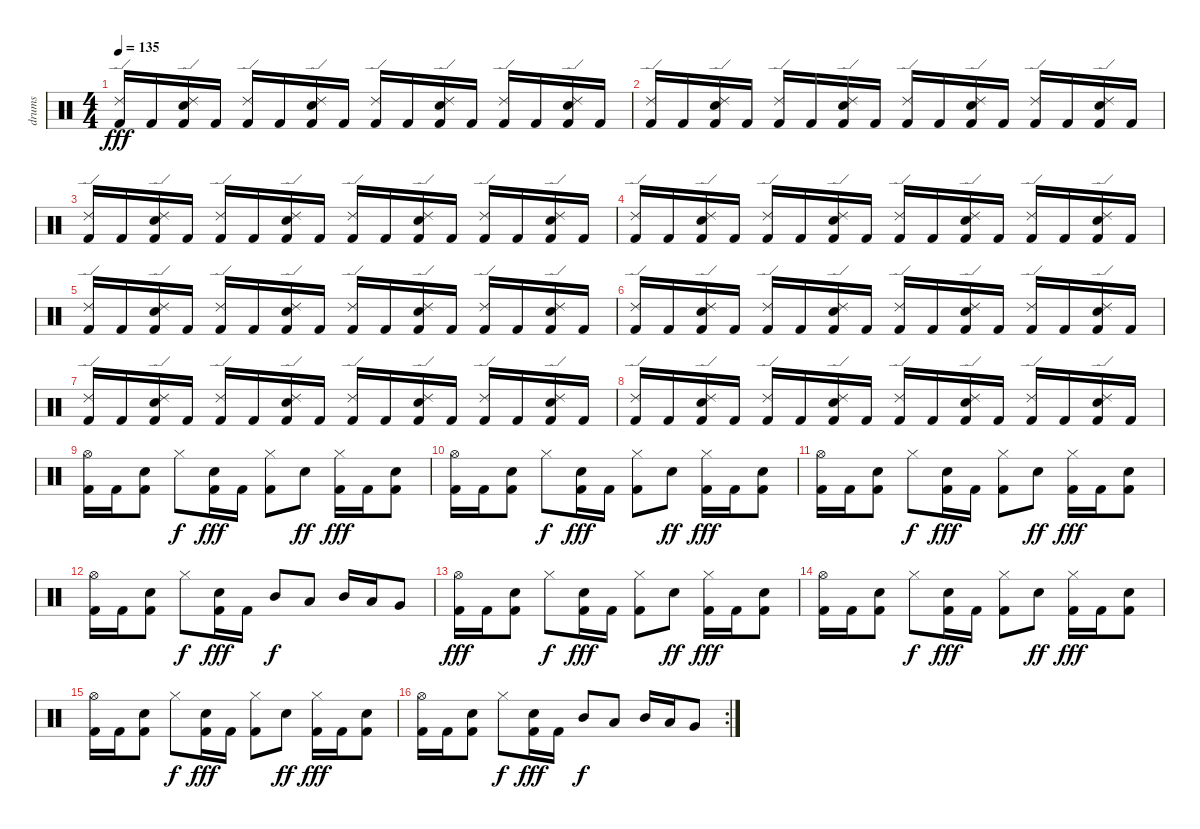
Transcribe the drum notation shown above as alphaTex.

\track ("drums" "drums") {instrument percussion}
\staff {score}
\articulation defaults
\ts (4 4)
\tempo 135
\clef neutral
\ks c
("Ride (edge) 2" "Kick (hit) 2").16{dy fff} "Kick (hit) 2".16 ("Ride (edge) 2" "Electric Snare (hit)" "Kick (hit) 2").16 "Kick (hit) 2".16 ("Ride (edge) 2" "Kick (hit) 2").16 "Kick (hit) 2".16 ("Ride (edge) 2" "Electric Snare (hit)" "Kick (hit) 2").16 "Kick (hit) 2".16 ("Ride (edge) 2" "Kick (hit) 2").16 "Kick (hit) 2".16 ("Ride (edge) 2" "Electric Snare (hit)" "Kick (hit) 2").16 "Kick (hit) 2".16 ("Ride (edge) 2" "Kick (hit) 2").16 "Kick (hit) 2".16 ("Ride (edge) 2" "Electric Snare (hit)" "Kick (hit) 2").16 "Kick (hit) 2".16 |
("Ride (edge) 2" "Kick (hit) 2").16 "Kick (hit) 2".16 ("Ride (edge) 2" "Electric Snare (hit)" "Kick (hit) 2").16 "Kick (hit) 2".16 ("Ride (edge) 2" "Kick (hit) 2").16 "Kick (hit) 2".16 ("Ride (edge) 2" "Electric Snare (hit)" "Kick (hit) 2").16 "Kick (hit) 2".16 ("Ride (edge) 2" "Kick (hit) 2").16 "Kick (hit) 2".16 ("Ride (edge) 2" "Electric Snare (hit)" "Kick (hit) 2").16 "Kick (hit) 2".16 ("Ride (edge) 2" "Kick (hit) 2").16 "Kick (hit) 2".16 ("Ride (edge) 2" "Electric Snare (hit)" "Kick (hit) 2").16 "Kick (hit) 2".16 |
("Ride (edge) 2" "Kick (hit) 2").16 "Kick (hit) 2".16 ("Ride (edge) 2" "Electric Snare (hit)" "Kick (hit) 2").16 "Kick (hit) 2".16 ("Ride (edge) 2" "Kick (hit) 2").16 "Kick (hit) 2".16 ("Ride (edge) 2" "Electric Snare (hit)" "Kick (hit) 2").16 "Kick (hit) 2".16 ("Ride (edge) 2" "Kick (hit) 2").16 "Kick (hit) 2".16 ("Ride (edge) 2" "Electric Snare (hit)" "Kick (hit) 2").16 "Kick (hit) 2".16 ("Ride (edge) 2" "Kick (hit) 2").16 "Kick (hit) 2".16 ("Ride (edge) 2" "Electric Snare (hit)" "Kick (hit) 2").16 "Kick (hit) 2".16 |
("Ride (edge) 2" "Kick (hit) 2").16 "Kick (hit) 2".16 ("Ride (edge) 2" "Electric Snare (hit)" "Kick (hit) 2").16 "Kick (hit) 2".16 ("Ride (edge) 2" "Kick (hit) 2").16 "Kick (hit) 2".16 ("Ride (edge) 2" "Electric Snare (hit)" "Kick (hit) 2").16 "Kick (hit) 2".16 ("Ride (edge) 2" "Kick (hit) 2").16 "Kick (hit) 2".16 ("Ride (edge) 2" "Electric Snare (hit)" "Kick (hit) 2").16 "Kick (hit) 2".16 ("Ride (edge) 2" "Kick (hit) 2").16 "Kick (hit) 2".16 ("Ride (edge) 2" "Electric Snare (hit)" "Kick (hit) 2").16 "Kick (hit) 2".16 |
("Ride (edge) 2" "Kick (hit) 2").16 "Kick (hit) 2".16 ("Ride (edge) 2" "Electric Snare (hit)" "Kick (hit) 2").16 "Kick (hit) 2".16 ("Ride (edge) 2" "Kick (hit) 2").16 "Kick (hit) 2".16 ("Ride (edge) 2" "Electric Snare (hit)" "Kick (hit) 2").16 "Kick (hit) 2".16 ("Ride (edge) 2" "Kick (hit) 2").16 "Kick (hit) 2".16 ("Ride (edge) 2" "Electric Snare (hit)" "Kick (hit) 2").16 "Kick (hit) 2".16 ("Ride (edge) 2" "Kick (hit) 2").16 "Kick (hit) 2".16 ("Ride (edge) 2" "Electric Snare (hit)" "Kick (hit) 2").16 "Kick (hit) 2".16 |
("Ride (edge) 2" "Kick (hit) 2").16 "Kick (hit) 2".16 ("Ride (edge) 2" "Electric Snare (hit)" "Kick (hit) 2").16 "Kick (hit) 2".16 ("Ride (edge) 2" "Kick (hit) 2").16 "Kick (hit) 2".16 ("Ride (edge) 2" "Electric Snare (hit)" "Kick (hit) 2").16 "Kick (hit) 2".16 ("Ride (edge) 2" "Kick (hit) 2").16 "Kick (hit) 2".16 ("Ride (edge) 2" "Electric Snare (hit)" "Kick (hit) 2").16 "Kick (hit) 2".16 ("Ride (edge) 2" "Kick (hit) 2").16 "Kick (hit) 2".16 ("Ride (edge) 2" "Electric Snare (hit)" "Kick (hit) 2").16 "Kick (hit) 2".16 |
("Ride (edge) 2" "Kick (hit) 2").16 "Kick (hit) 2".16 ("Ride (edge) 2" "Electric Snare (hit)" "Kick (hit) 2").16 "Kick (hit) 2".16 ("Ride (edge) 2" "Kick (hit) 2").16 "Kick (hit) 2".16 ("Ride (edge) 2" "Electric Snare (hit)" "Kick (hit) 2").16 "Kick (hit) 2".16 ("Ride (edge) 2" "Kick (hit) 2").16 "Kick (hit) 2".16 ("Ride (edge) 2" "Electric Snare (hit)" "Kick (hit) 2").16 "Kick (hit) 2".16 ("Ride (edge) 2" "Kick (hit) 2").16 "Kick (hit) 2".16 ("Ride (edge) 2" "Electric Snare (hit)" "Kick (hit) 2").16 "Kick (hit) 2".16 |
("Ride (edge) 2" "Kick (hit) 2").16 "Kick (hit) 2".16 ("Ride (edge) 2" "Electric Snare (hit)" "Kick (hit) 2").16 "Kick (hit) 2".16 ("Ride (edge) 2" "Kick (hit) 2").16 "Kick (hit) 2".16 ("Ride (edge) 2" "Electric Snare (hit)" "Kick (hit) 2").16 "Kick (hit) 2".16 ("Ride (edge) 2" "Kick (hit) 2").16 "Kick (hit) 2".16 ("Ride (edge) 2" "Electric Snare (hit)" "Kick (hit) 2").16 "Kick (hit) 2".16 ("Ride (edge) 2" "Kick (hit) 2").16 "Kick (hit) 2".16 ("Ride (edge) 2" "Electric Snare (hit)" "Kick (hit) 2").16 "Kick (hit) 2".16 |
("Hi-Hat (open)" "Kick (hit) 2").16 "Kick (hit) 2".16 ("Electric Snare (hit)" "Kick (hit) 2").8 "Hi-Hat (closed)".8{dy f} ("Electric Snare (hit)" "Kick (hit) 2").16{dy fff} "Kick (hit) 2".16 ("Hi-Hat (closed)" "Kick (hit) 2").8 "Electric Snare (hit)".8{dy ff} ("Hi-Hat (closed)" "Kick (hit) 2").16{dy fff} "Kick (hit) 2".16 ("Electric Snare (hit)" "Kick (hit) 2").8 |
("Hi-Hat (open)" "Kick (hit) 2").16 "Kick (hit) 2".16 ("Electric Snare (hit)" "Kick (hit) 2").8 "Hi-Hat (closed)".8{dy f} ("Electric Snare (hit)" "Kick (hit) 2").16{dy fff} "Kick (hit) 2".16 ("Hi-Hat (closed)" "Kick (hit) 2").8 "Electric Snare (hit)".8{dy ff} ("Hi-Hat (closed)" "Kick (hit) 2").16{dy fff} "Kick (hit) 2".16 ("Electric Snare (hit)" "Kick (hit) 2").8 |
("Hi-Hat (open)" "Kick (hit) 2").16 "Kick (hit) 2".16 ("Electric Snare (hit)" "Kick (hit) 2").8 "Hi-Hat (closed)".8{dy f} ("Electric Snare (hit)" "Kick (hit) 2").16{dy fff} "Kick (hit) 2".16 ("Hi-Hat (closed)" "Kick (hit) 2").8 "Electric Snare (hit)".8{dy ff} ("Hi-Hat (closed)" "Kick (hit) 2").16{dy fff} "Kick (hit) 2".16 ("Electric Snare (hit)" "Kick (hit) 2").8 |
("Hi-Hat (open)" "Kick (hit) 2").16 "Kick (hit) 2".16 ("Electric Snare (hit)" "Kick (hit) 2").8 "Hi-Hat (closed)".8{dy f} ("Electric Snare (hit)" "Kick (hit) 2").16{dy fff} "Kick (hit) 2".16 "Mid Tom (hit)".8{dy f} "Low Tom (hit)".8 "Mid Tom (hit)".16 "Low Tom (hit)".16 "Very Low Tom (hit)".8 |
("Hi-Hat (open)" "Kick (hit) 2").16{dy fff} "Kick (hit) 2".16 ("Electric Snare (hit)" "Kick (hit) 2").8 "Hi-Hat (closed)".8{dy f} ("Electric Snare (hit)" "Kick (hit) 2").16{dy fff} "Kick (hit) 2".16 ("Hi-Hat (closed)" "Kick (hit) 2").8 "Electric Snare (hit)".8{dy ff} ("Hi-Hat (closed)" "Kick (hit) 2").16{dy fff} "Kick (hit) 2".16 ("Electric Snare (hit)" "Kick (hit) 2").8 |
("Hi-Hat (open)" "Kick (hit) 2").16 "Kick (hit) 2".16 ("Electric Snare (hit)" "Kick (hit) 2").8 "Hi-Hat (closed)".8{dy f} ("Electric Snare (hit)" "Kick (hit) 2").16{dy fff} "Kick (hit) 2".16 ("Hi-Hat (closed)" "Kick (hit) 2").8 "Electric Snare (hit)".8{dy ff} ("Hi-Hat (closed)" "Kick (hit) 2").16{dy fff} "Kick (hit) 2".16 ("Electric Snare (hit)" "Kick (hit) 2").8 |
("Hi-Hat (open)" "Kick (hit) 2").16 "Kick (hit) 2".16 ("Electric Snare (hit)" "Kick (hit) 2").8 "Hi-Hat (closed)".8{dy f} ("Electric Snare (hit)" "Kick (hit) 2").16{dy fff} "Kick (hit) 2".16 ("Hi-Hat (closed)" "Kick (hit) 2").8 "Electric Snare (hit)".8{dy ff} ("Hi-Hat (closed)" "Kick (hit) 2").16{dy fff} "Kick (hit) 2".16 ("Electric Snare (hit)" "Kick (hit) 2").8 |
\rc 2
("Hi-Hat (open)" "Kick (hit) 2").16 "Kick (hit) 2".16 ("Electric Snare (hit)" "Kick (hit) 2").8 "Hi-Hat (closed)".8{dy f} ("Electric Snare (hit)" "Kick (hit) 2").16{dy fff} "Kick (hit) 2".16 "Mid Tom (hit)".8{dy f} "Low Tom (hit)".8 "Mid Tom (hit)".16 "Low Tom (hit)".16 "Very Low Tom (hit)".8
